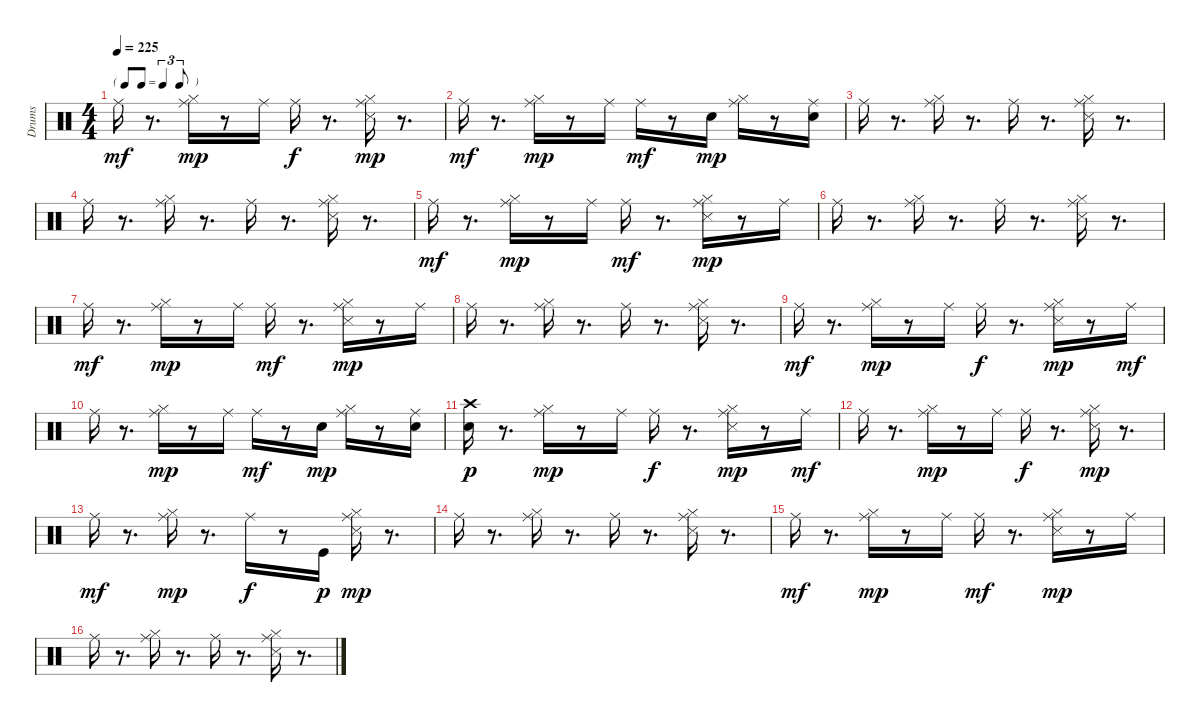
\track ("Drums   " "Drums   ") {instrument percussion}
\staff {score}
\articulation defaults
\ts (4 4)
\tf triplet8th
\tempo 225
\clef neutral
\ks c "Ride (middle)".16{dy mf}
r.8{d} ("Hi-Hat (closed)" "Ride (middle)").16{dy mp} r.8 "Ride (middle)".16 "Ride (middle)".16{dy f} r.8{d} ("Hi-Hat (closed)" "Snare (side stick) 3" "Ride (middle)").16{dy mp} r.8{d} |
"Ride (middle)".16{dy mf} r.8{d} ("Hi-Hat (closed)" "Ride (middle)").16{dy mp} r.8 "Ride (middle)".16 "Ride (middle)".16{dy mf} r.8 "Snare (hit) 2".16{dy mp} ("Hi-Hat (closed)" "Ride (middle)").16 r.8 ("Snare (hit) 2" "Ride (middle)").16 |
"Ride (middle)".16 r.8{d} ("Hi-Hat (closed)" "Ride (middle)").16 r.8{d} "Ride (middle)".16 r.8{d} ("Hi-Hat (closed)" "Snare (side stick) 3" "Ride (middle)").16 r.8{d} |
"Ride (middle)".16 r.8{d} ("Hi-Hat (closed)" "Ride (middle)").16 r.8{d} "Ride (middle)".16 r.8{d} ("Hi-Hat (closed)" "Snare (side stick) 3" "Ride (middle)").16 r.8{d} |
"Ride (middle)".16{dy mf} r.8{d} ("Hi-Hat (closed)" "Ride (middle)").16{dy mp} r.8 "Ride (middle)".16 "Ride (middle)".16{dy mf} r.8{d} ("Hi-Hat (closed)" "Snare (side stick) 3" "Ride (middle)").16{dy mp} r.8 "Ride (middle)".16 |
"Ride (middle)".16 r.8{d} ("Hi-Hat (closed)" "Ride (middle)").16 r.8{d} "Ride (middle)".16 r.8{d} ("Hi-Hat (closed)" "Snare (side stick) 3" "Ride (middle)").16 r.8{d} |
"Ride (middle)".16{dy mf} r.8{d} ("Hi-Hat (closed)" "Ride (middle)").16{dy mp} r.8 "Ride (middle)".16 "Ride (middle)".16{dy mf} r.8{d} ("Hi-Hat (closed)" "Snare (side stick) 3" "Ride (middle)").16{dy mp} r.8 "Ride (middle)".16 |
"Ride (middle)".16 r.8{d} ("Hi-Hat (closed)" "Ride (middle)").16 r.8{d} "Ride (middle)".16 r.8{d} ("Hi-Hat (closed)" "Snare (side stick) 3" "Ride (middle)").16 r.8{d} |
"Ride (middle)".16{dy mf} r.8{d} ("Hi-Hat (closed)" "Ride (middle)").16{dy mp} r.8 "Ride (middle)".16 "Ride (middle)".16{dy f} r.8{d} ("Hi-Hat (closed)" "Snare (side stick) 3" "Ride (middle)").16{dy mp} r.8 "Ride (middle)".16{dy mf} |
"Ride (middle)".16 r.8{d} ("Hi-Hat (closed)" "Ride (middle)").16{dy mp} r.8 "Ride (middle)".16 "Ride (middle)".16{dy mf} r.8 "Snare (hit) 2".16{dy mp} ("Hi-Hat (closed)" "Ride (middle)").16 r.8 ("Snare (hit) 2" "Ride (middle)").16 |
("Snare (hit) 2" "Crash high (hit)").16{dy p} r.8{d} ("Hi-Hat (closed)" "Ride (middle)").16{dy mp} r.8 "Ride (middle)".16 "Ride (middle)".16{dy f} r.8{d} ("Hi-Hat (closed)" "Snare (side stick) 3" "Ride (middle)").16{dy mp} r.8 "Ride (middle)".16{dy mf} |
"Ride (middle)".16 r.8{d} ("Hi-Hat (closed)" "Ride (middle)").16{dy mp} r.8 "Ride (middle)".16 "Ride (middle)".16{dy f} r.8{d} ("Hi-Hat (closed)" "Snare (side stick) 3" "Ride (middle)").16{dy mp} r.8{d} |
"Ride (middle)".16{dy mf} r.8{d} ("Hi-Hat (closed)" "Ride (middle)").16{dy mp} r.8{d} "Ride (middle)".16{dy f} r.8 "Kick (hit)".16{dy p} ("Hi-Hat (closed)" "Snare (side stick) 3" "Ride (middle)").16{dy mp} r.8{d} |
"Ride (middle)".16 r.8{d} ("Hi-Hat (closed)" "Ride (middle)").16 r.8{d} "Ride (middle)".16 r.8{d} ("Hi-Hat (closed)" "Snare (side stick) 3" "Ride (middle)").16 r.8{d} |
"Ride (middle)".16{dy mf} r.8{d} ("Hi-Hat (closed)" "Ride (middle)").16{dy mp} r.8 "Ride (middle)".16 "Ride (middle)".16{dy mf} r.8{d} ("Hi-Hat (closed)" "Snare (side stick) 3" "Ride (middle)").16{dy mp} r.8 "Ride (middle)".16 |
"Ride (middle)".16 r.8{d} ("Hi-Hat (closed)" "Ride (middle)").16 r.8{d} "Ride (middle)".16 r.8{d} ("Hi-Hat (closed)" "Snare (side stick) 3" "Ride (middle)").16 r.8{d}
